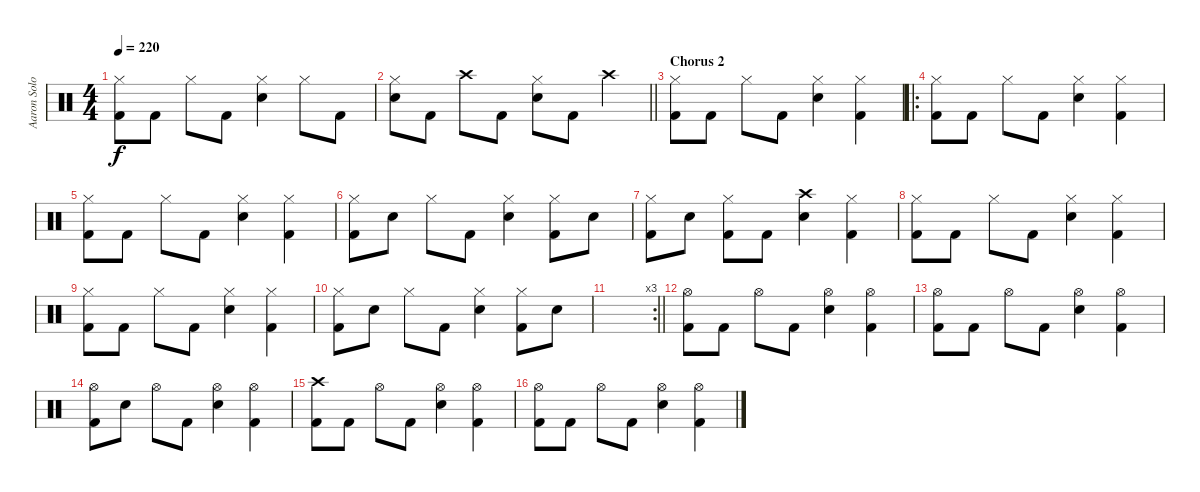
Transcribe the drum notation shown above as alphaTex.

\track ("Aaron Solowoniuk" "Aaron Solo") {instrument percussion}
\staff {score}
\articulation defaults
\ts (4 4)
\tempo 220
\clef neutral
\ks c
("Hi-Hat (closed)" "Kick (hit) 2").8{dy f} "Kick (hit) 2".8 "Hi-Hat (closed)".8 "Kick (hit) 2".8 ("Hi-Hat (closed)" "Snare (hit) 2").4 "Hi-Hat (closed)".8 "Kick (hit) 2".8 |
\barLineRight lightlight
("Hi-Hat (closed)" "Snare (hit) 2").8 "Kick (hit) 2".8 "Crash high (hit)".8 "Kick (hit) 2".8 ("Hi-Hat (closed)" "Snare (hit) 2").8 "Kick (hit) 2".8 "Crash high (hit)".4 |
\section ("" "Chorus 2")
("Hi-Hat (closed)" "Kick (hit) 2").8 "Kick (hit) 2".8 "Hi-Hat (closed)".8 "Kick (hit) 2".8 ("Hi-Hat (closed)" "Snare (hit) 2").4 ("Hi-Hat (closed)" "Kick (hit) 2").4 |
\ro
("Hi-Hat (closed)" "Kick (hit) 2").8 "Kick (hit) 2".8 "Hi-Hat (closed)".8 "Kick (hit) 2".8 ("Hi-Hat (closed)" "Snare (hit) 2").4 ("Hi-Hat (closed)" "Kick (hit) 2").4 |
("Hi-Hat (closed)" "Kick (hit) 2").8 "Kick (hit) 2".8 "Hi-Hat (closed)".8 "Kick (hit) 2".8 ("Hi-Hat (closed)" "Snare (hit) 2").4 ("Hi-Hat (closed)" "Kick (hit) 2").4 |
("Hi-Hat (closed)" "Kick (hit) 2").8 "Snare (hit) 2".8 "Hi-Hat (closed)".8 "Kick (hit) 2".8 ("Hi-Hat (closed)" "Snare (hit) 2").4 ("Hi-Hat (closed)" "Kick (hit) 2").8 "Snare (hit) 2".8 |
("Hi-Hat (closed)" "Kick (hit) 2").8 "Snare (hit) 2".8 ("Hi-Hat (closed)" "Kick (hit) 2").8 "Kick (hit) 2".8 ("Crash high (hit)" "Snare (hit) 2").4 ("Hi-Hat (closed)" "Kick (hit) 2").4 |
("Hi-Hat (closed)" "Kick (hit) 2").8 "Kick (hit) 2".8 "Hi-Hat (closed)".8 "Kick (hit) 2".8 ("Hi-Hat (closed)" "Snare (hit) 2").4 ("Hi-Hat (closed)" "Kick (hit) 2").4 |
("Hi-Hat (closed)" "Kick (hit) 2").8 "Kick (hit) 2".8 "Hi-Hat (closed)".8 "Kick (hit) 2".8 ("Hi-Hat (closed)" "Snare (hit) 2").4 ("Hi-Hat (closed)" "Kick (hit) 2").4 |
("Hi-Hat (closed)" "Kick (hit) 2").8 "Snare (hit) 2".8 "Hi-Hat (closed)".8 "Kick (hit) 2".8 ("Hi-Hat (closed)" "Snare (hit) 2").4 ("Hi-Hat (closed)" "Kick (hit) 2").8 "Snare (hit) 2".8 |
\rc 3
\barLineRight lightlight
|
("Hi-Hat (open)" "Kick (hit) 2").8 "Kick (hit) 2".8 "Hi-Hat (open)".8 "Kick (hit) 2".8 ("Hi-Hat (open)" "Snare (hit) 2").4 ("Hi-Hat (open)" "Kick (hit) 2").4 |
("Hi-Hat (open)" "Kick (hit) 2").8 "Kick (hit) 2".8 "Hi-Hat (open)".8 "Kick (hit) 2".8 ("Hi-Hat (open)" "Snare (hit) 2").4 ("Hi-Hat (open)" "Kick (hit) 2").4 |
("Hi-Hat (open)" "Kick (hit) 2").8 "Snare (hit) 2".8 "Hi-Hat (open)".8 "Kick (hit) 2".8 ("Hi-Hat (open)" "Snare (hit) 2").4 ("Hi-Hat (open)" "Kick (hit) 2").4 |
("Crash high (hit)" "Kick (hit) 2").8 "Kick (hit) 2".8 "Hi-Hat (open)".8 "Kick (hit) 2".8 ("Hi-Hat (open)" "Snare (hit) 2").4 ("Hi-Hat (open)" "Kick (hit) 2").4 |
("Hi-Hat (open)" "Kick (hit) 2").8 "Kick (hit) 2".8 "Hi-Hat (open)".8 "Kick (hit) 2".8 ("Hi-Hat (open)" "Snare (hit) 2").4 ("Hi-Hat (open)" "Kick (hit) 2").4
